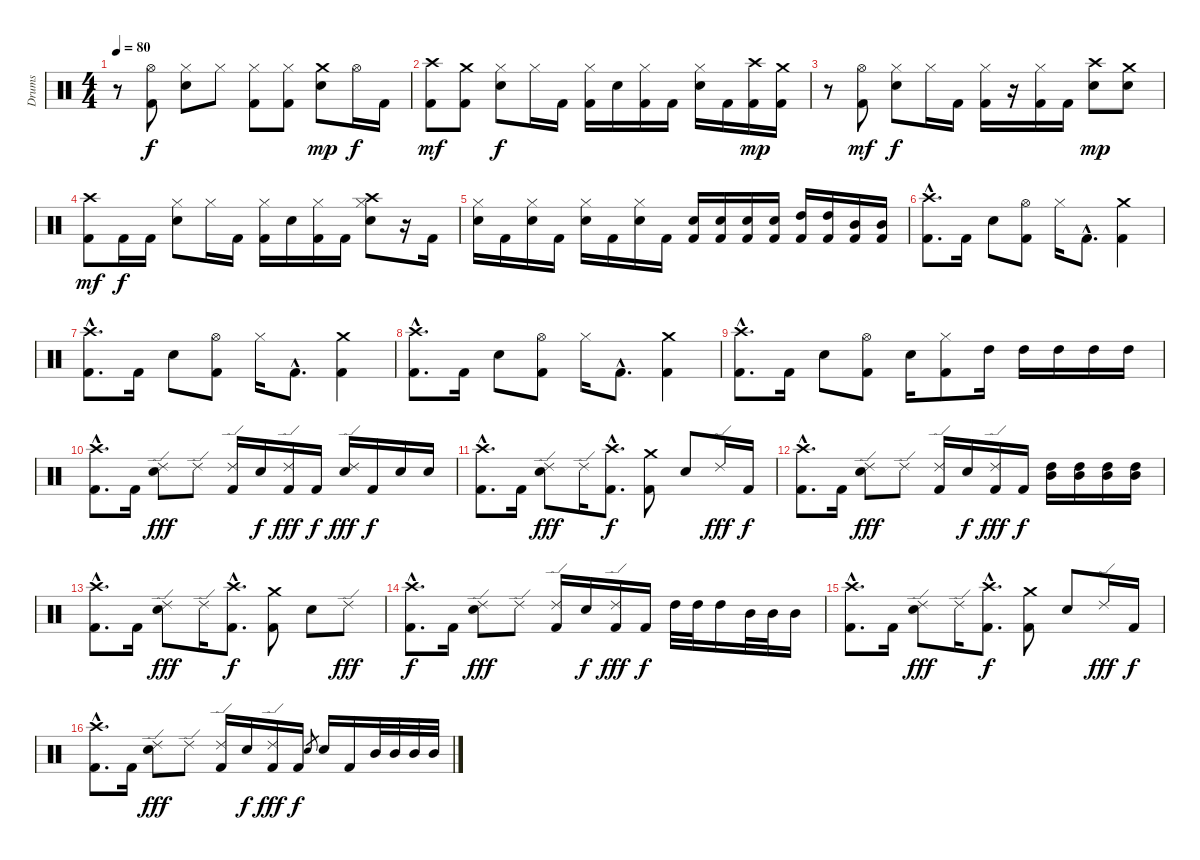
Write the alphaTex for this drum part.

\track ("Drums" "Drums") {instrument percussion}
\staff {score}
\articulation defaults
\ts (4 4)
\tempo 80
\clef neutral
\ks c
r.8{dy f} ("Hi-Hat (open)" "Kick (hit) 2").8 ("Hi-Hat (closed)" "Snare (hit) 2").8 "Hi-Hat (closed)".8 ("Hi-Hat (closed)" "Kick (hit) 2").8 ("Hi-Hat (closed)" "Kick (hit) 2").8 ("Crash medium (hit)" "Snare (hit) 2").8{dy mp} "Hi-Hat (open)".16{dy f} "Kick (hit) 2".16 |
("Crash high (hit)" "Kick (hit) 2").8{dy mf} ("Crash medium (hit)" "Kick (hit) 2").8 ("Hi-Hat (closed)" "Snare (hit) 2").8{dy f} "Hi-Hat (closed)".16 "Kick (hit) 2".16 ("Hi-Hat (closed)" "Kick (hit) 2").16 "Snare (hit) 2".16 ("Hi-Hat (closed)" "Kick (hit) 2").16 "Kick (hit) 2".16 ("Hi-Hat (closed)" "Snare (hit) 2").16 "Kick (hit) 2".16 ("Crash high (hit)" "Kick (hit) 2").16{dy mp} ("Crash medium (hit)" "Kick (hit) 2").16 |
r.8 ("Hi-Hat (open)" "Kick (hit) 2").8{dy mf} ("Hi-Hat (closed)" "Snare (hit) 2").8{dy f} "Hi-Hat (closed)".16 "Kick (hit) 2".16 ("Hi-Hat (closed)" "Kick (hit) 2").16 r.16 ("Hi-Hat (closed)" "Kick (hit) 2").16 "Kick (hit) 2".16 ("Crash high (hit)" "Snare (hit) 2").8{dy mp} ("Crash medium (hit)" "Snare (hit) 2").8 |
("Crash high (hit)" "Kick (hit) 2").8{dy mf} "Kick (hit) 2".16{dy f} "Kick (hit) 2".16 ("Hi-Hat (closed)" "Snare (hit) 2").8 "Hi-Hat (closed)".16 "Kick (hit) 2".16 ("Hi-Hat (closed)" "Kick (hit) 2").16 "Snare (hit) 2".16 ("Hi-Hat (closed)" "Kick (hit) 2").16 "Kick (hit) 2".16 ("Hi-Hat (closed)" "Crash high (hit)" "Snare (hit) 2").8 r.16 "Kick (hit) 2".16 |
("Hi-Hat (closed)" "Snare (hit) 2").16 "Kick (hit) 2".16 ("Hi-Hat (closed)" "Snare (hit) 2").16 "Kick (hit) 2".16 ("Hi-Hat (closed)" "Snare (hit) 2").16 "Kick (hit) 2".16 ("Hi-Hat (closed)" "Snare (hit) 2").16 "Kick (hit) 2".16 ("Snare (hit) 2" "Kick (hit) 2").16 ("Snare (hit) 2" "Kick (hit) 2").16 ("Snare (hit) 2" "Kick (hit) 2").16 ("Snare (hit) 2" "Kick (hit) 2").16 ("High Tom (hit)" "Kick (hit) 2").16 ("High Tom (hit)" "Kick (hit) 2").16 ("Mid Tom (hit)" "Kick (hit) 2").16 ("Mid Tom (hit)" "Kick (hit) 2").16 |
("Crash high (hit)"{hac} "Kick (hit) 2"{hac}).8{d} "Kick (hit) 2".16 "Snare (hit) 2".8 ("Hi-Hat (open)" "Kick (hit) 2").8 "Hi-Hat (closed)".16 "Kick (hit) 2"{hac}.8{d} ("Crash medium (hit)" "Kick (hit) 2").4 |
("Crash high (hit)"{hac} "Kick (hit) 2"{hac}).8{d} "Kick (hit) 2".16 "Snare (hit) 2".8 ("Hi-Hat (open)" "Kick (hit) 2").8 "Hi-Hat (closed)".16 "Kick (hit) 2"{hac}.8{d} ("Crash medium (hit)" "Kick (hit) 2").4 |
("Crash high (hit)"{hac} "Kick (hit) 2"{hac}).8{d} "Kick (hit) 2".16 "Snare (hit) 2".8 ("Hi-Hat (open)" "Kick (hit) 2").8 "Hi-Hat (closed)".16 "Kick (hit) 2"{hac}.8{d} ("Crash medium (hit)" "Kick (hit) 2").4 |
("Crash high (hit)"{hac} "Kick (hit) 2"{hac}).8{d} "Kick (hit) 2".16 "Snare (hit) 2".8 ("Hi-Hat (open)" "Kick (hit) 2").8 "Snare (hit) 2".16 ("Hi-Hat (closed)" "Kick (hit) 2").8 "High Tom (hit)".16 "High Tom (hit)".16 "High Tom (hit)".16 "High Tom (hit)".16 "High Tom (hit)".16 |
("Crash high (hit)"{hac} "Kick (hit) 2"{hac}).8{d} "Kick (hit) 2".16 ("Ride (edge) 2" "Snare (hit) 2").8{dy fff} "Ride (edge) 2".8 ("Ride (edge) 2" "Kick (hit) 2").16 "Snare (hit) 2".16{dy f} ("Ride (edge) 2" "Kick (hit) 2").16{dy fff} "Kick (hit) 2".16{dy f} ("Ride (edge) 2" "Snare (hit) 2").16{dy fff} "Kick (hit) 2".16{dy f} "Snare (hit) 2".16 "Snare (hit) 2".16 |
("Crash high (hit)"{hac} "Kick (hit) 2"{hac}).8{d} "Kick (hit) 2".16 ("Ride (edge) 2" "Snare (hit) 2").8{dy fff} "Ride (edge) 2".16 ("Crash high (hit)"{hac} "Kick (hit) 2"{hac}).8{d dy f} ("Crash medium (hit)" "Kick (hit) 2").8 "Snare (hit) 2".8 "Ride (edge) 2".16{dy fff} "Kick (hit) 2".16{dy f} |
("Crash high (hit)"{hac} "Kick (hit) 2"{hac}).8{d} "Kick (hit) 2".16 ("Ride (edge) 2" "Snare (hit) 2").8{dy fff} "Ride (edge) 2".8 ("Ride (edge) 2" "Kick (hit) 2").16 "Snare (hit) 2".16{dy f} ("Ride (edge) 2" "Kick (hit) 2").16{dy fff} "Kick (hit) 2".16{dy f} ("High Tom (hit)" "Mid Tom (hit)").16 ("High Tom (hit)" "Mid Tom (hit)").16 ("High Tom (hit)" "Mid Tom (hit)").16 ("High Tom (hit)" "Mid Tom (hit)").16 |
("Crash high (hit)"{hac} "Kick (hit) 2"{hac}).8{d} "Kick (hit) 2".16 ("Ride (edge) 2" "Snare (hit) 2").8{dy fff} "Ride (edge) 2".16 ("Crash high (hit)"{hac} "Kick (hit) 2"{hac}).8{d dy f} ("Crash medium (hit)" "Kick (hit) 2").8 "Snare (hit) 2".8 "Ride (edge) 2".8{dy fff} |
("Crash high (hit)"{hac} "Kick (hit) 2"{hac}).8{d dy f} "Kick (hit) 2".16 ("Ride (edge) 2" "Snare (hit) 2").8{dy fff} "Ride (edge) 2".8 ("Ride (edge) 2" "Kick (hit) 2").16 "Snare (hit) 2".16{dy f} ("Ride (edge) 2" "Kick (hit) 2").16{dy fff} "Kick (hit) 2".16{dy f} "High Tom (hit)".32 "High Tom (hit)".32 "High Tom (hit)".16 "Mid Tom (hit)".32 "Mid Tom (hit)".32 "Mid Tom (hit)".16 |
("Crash high (hit)"{hac} "Kick (hit) 2"{hac}).8{d} "Kick (hit) 2".16 ("Ride (edge) 2" "Snare (hit) 2").8{dy fff} "Ride (edge) 2".16 ("Crash high (hit)"{hac} "Kick (hit) 2"{hac}).8{d dy f} ("Crash medium (hit)" "Kick (hit) 2").8 "Snare (hit) 2".8 "Ride (edge) 2".16{dy fff} "Kick (hit) 2".16{dy f} |
("Crash high (hit)"{hac} "Kick (hit) 2"{hac}).8{d} "Kick (hit) 2".16 ("Ride (edge) 2" "Snare (hit) 2").8{dy fff} "Ride (edge) 2".8 ("Ride (edge) 2" "Kick (hit) 2").16 "Snare (hit) 2".16{dy f} ("Ride (edge) 2" "Kick (hit) 2").16{dy fff} "Kick (hit) 2".16{dy f} "Snare (hit) 2".8{gr} "Snare (hit) 2".16 "Kick (hit) 2".16 "Mid Tom (hit)".32 "Mid Tom (hit)".32 "Mid Tom (hit)".32 "Mid Tom (hit)".32
